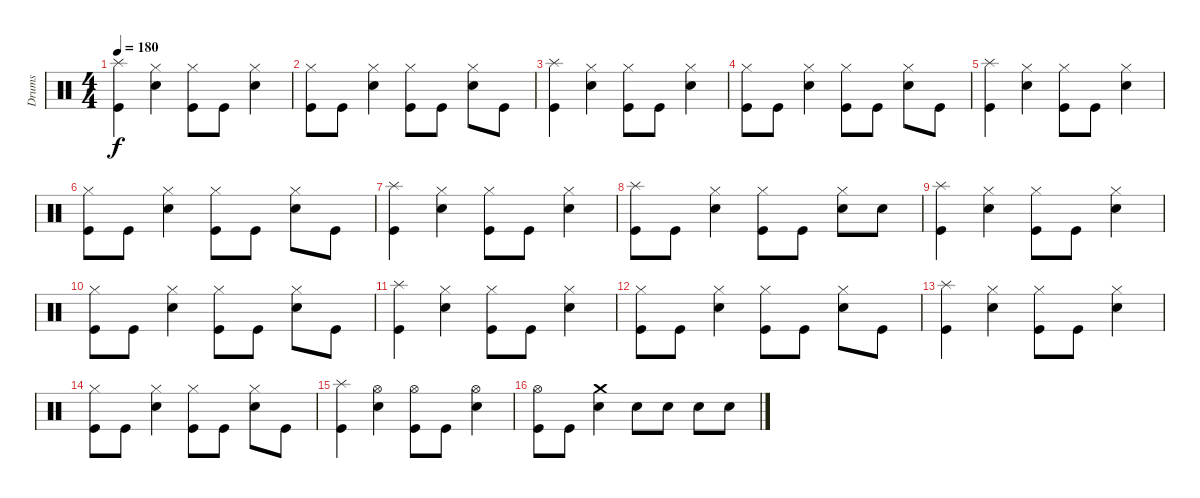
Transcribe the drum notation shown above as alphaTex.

\track ("Drums" "Drums") {instrument percussion}
\staff {score}
\articulation defaults
\ts (4 4)
\tempo 180
\clef neutral
\ks c
("Splash (hit)" "Kick (hit)").4{dy f} ("Hi-Hat (closed)" "Electric Snare (hit)").4 ("Hi-Hat (closed)" "Kick (hit)").8 "Kick (hit)".8 ("Hi-Hat (closed)" "Electric Snare (hit)").4 |
("Hi-Hat (closed)" "Kick (hit)").8 "Kick (hit)".8 ("Hi-Hat (closed)" "Electric Snare (hit)").4 ("Hi-Hat (closed)" "Kick (hit)").8 "Kick (hit)".8 ("Hi-Hat (closed)" "Electric Snare (hit)").8 "Kick (hit)".8 |
("Splash (hit)" "Kick (hit)").4 ("Hi-Hat (closed)" "Electric Snare (hit)").4 ("Hi-Hat (closed)" "Kick (hit)").8 "Kick (hit)".8 ("Hi-Hat (closed)" "Electric Snare (hit)").4 |
("Hi-Hat (closed)" "Kick (hit)").8 "Kick (hit)".8 ("Hi-Hat (closed)" "Electric Snare (hit)").4 ("Hi-Hat (closed)" "Kick (hit)").8 "Kick (hit)".8 ("Hi-Hat (closed)" "Electric Snare (hit)").8 "Kick (hit)".8 |
("Splash (hit)" "Kick (hit)").4 ("Hi-Hat (closed)" "Electric Snare (hit)").4 ("Hi-Hat (closed)" "Kick (hit)").8 "Kick (hit)".8 ("Hi-Hat (closed)" "Electric Snare (hit)").4 |
("Hi-Hat (closed)" "Kick (hit)").8 "Kick (hit)".8 ("Hi-Hat (closed)" "Electric Snare (hit)").4 ("Hi-Hat (closed)" "Kick (hit)").8 "Kick (hit)".8 ("Hi-Hat (closed)" "Electric Snare (hit)").8 "Kick (hit)".8 |
("Splash (hit)" "Kick (hit)").4 ("Hi-Hat (closed)" "Electric Snare (hit)").4 ("Hi-Hat (closed)" "Kick (hit)").8 "Kick (hit)".8 ("Hi-Hat (closed)" "Electric Snare (hit)").4 |
("Splash (hit)" "Kick (hit)").8 "Kick (hit)".8 ("Hi-Hat (closed)" "Electric Snare (hit)").4 ("Hi-Hat (closed)" "Kick (hit)").8 "Kick (hit)".8 ("Hi-Hat (closed)" "Electric Snare (hit)").8 "Electric Snare (hit)".8 |
("Splash (hit)" "Kick (hit)").4 ("Hi-Hat (closed)" "Electric Snare (hit)").4 ("Hi-Hat (closed)" "Kick (hit)").8 "Kick (hit)".8 ("Hi-Hat (closed)" "Electric Snare (hit)").4 |
("Hi-Hat (closed)" "Kick (hit)").8 "Kick (hit)".8 ("Hi-Hat (closed)" "Electric Snare (hit)").4 ("Hi-Hat (closed)" "Kick (hit)").8 "Kick (hit)".8 ("Hi-Hat (closed)" "Electric Snare (hit)").8 "Kick (hit)".8 |
("Splash (hit)" "Kick (hit)").4 ("Hi-Hat (closed)" "Electric Snare (hit)").4 ("Hi-Hat (closed)" "Kick (hit)").8 "Kick (hit)".8 ("Hi-Hat (closed)" "Electric Snare (hit)").4 |
("Hi-Hat (closed)" "Kick (hit)").8 "Kick (hit)".8 ("Hi-Hat (closed)" "Electric Snare (hit)").4 ("Hi-Hat (closed)" "Kick (hit)").8 "Kick (hit)".8 ("Hi-Hat (closed)" "Electric Snare (hit)").8 "Kick (hit)".8 |
("Splash (hit)" "Kick (hit)").4 ("Hi-Hat (closed)" "Electric Snare (hit)").4 ("Hi-Hat (closed)" "Kick (hit)").8 "Kick (hit)".8 ("Hi-Hat (closed)" "Electric Snare (hit)").4 |
("Hi-Hat (closed)" "Kick (hit)").8 "Kick (hit)".8 ("Hi-Hat (closed)" "Electric Snare (hit)").4 ("Hi-Hat (closed)" "Kick (hit)").8 "Kick (hit)".8 ("Hi-Hat (closed)" "Electric Snare (hit)").8 "Kick (hit)".8 |
("Splash (hit)" "Kick (hit)").4 ("Hi-Hat (open)" "Electric Snare (hit)").4 ("Hi-Hat (open)" "Kick (hit)").8 "Kick (hit)".8 ("Hi-Hat (open)" "Electric Snare (hit)").4 |
("Hi-Hat (open)" "Kick (hit)").8 "Kick (hit)".8 ("Crash medium (hit)" "Electric Snare (hit)").4 "Electric Snare (hit)".8 "Electric Snare (hit)".8 "Electric Snare (hit)".8 "Electric Snare (hit)".8
